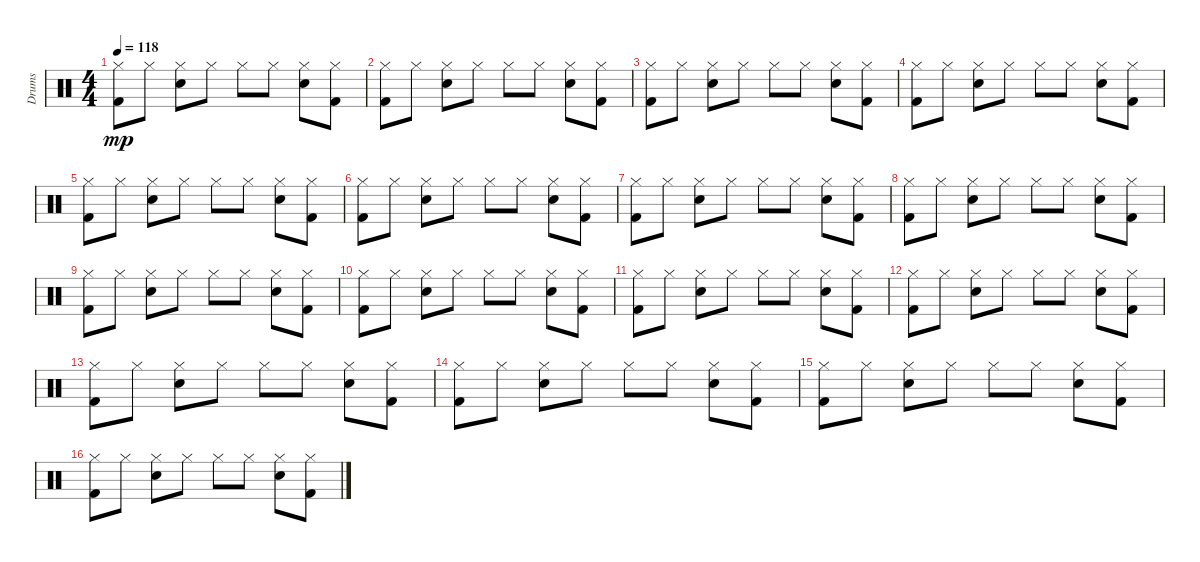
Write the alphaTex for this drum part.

\track ("Drums" "Drums") {instrument percussion}
\staff {score}
\articulation defaults
\ts (4 4)
\tempo 118
\clef neutral
\ks c
("Hi-Hat (closed)" "Kick (hit) 2").8{dy mp} "Hi-Hat (closed)".8 ("Hi-Hat (closed)" "Snare (hit) 2").8 "Hi-Hat (closed)".8 "Hi-Hat (closed)".8 "Hi-Hat (closed)".8 ("Hi-Hat (closed)" "Snare (hit) 2").8 ("Hi-Hat (closed)" "Kick (hit) 2").8 |
("Hi-Hat (closed)" "Kick (hit) 2").8 "Hi-Hat (closed)".8 ("Hi-Hat (closed)" "Snare (hit) 2").8 "Hi-Hat (closed)".8 "Hi-Hat (closed)".8 "Hi-Hat (closed)".8 ("Hi-Hat (closed)" "Snare (hit) 2").8 ("Hi-Hat (closed)" "Kick (hit) 2").8 |
("Hi-Hat (closed)" "Kick (hit) 2").8 "Hi-Hat (closed)".8 ("Hi-Hat (closed)" "Snare (hit) 2").8 "Hi-Hat (closed)".8 "Hi-Hat (closed)".8 "Hi-Hat (closed)".8 ("Hi-Hat (closed)" "Snare (hit) 2").8 ("Hi-Hat (closed)" "Kick (hit) 2").8 |
("Hi-Hat (closed)" "Kick (hit) 2").8 "Hi-Hat (closed)".8 ("Hi-Hat (closed)" "Snare (hit) 2").8 "Hi-Hat (closed)".8 "Hi-Hat (closed)".8 "Hi-Hat (closed)".8 ("Hi-Hat (closed)" "Snare (hit) 2").8 ("Hi-Hat (closed)" "Kick (hit) 2").8 |
("Hi-Hat (closed)" "Kick (hit) 2").8 "Hi-Hat (closed)".8 ("Hi-Hat (closed)" "Snare (hit) 2").8 "Hi-Hat (closed)".8 "Hi-Hat (closed)".8 "Hi-Hat (closed)".8 ("Hi-Hat (closed)" "Snare (hit) 2").8 ("Hi-Hat (closed)" "Kick (hit) 2").8 |
("Hi-Hat (closed)" "Kick (hit) 2").8 "Hi-Hat (closed)".8 ("Hi-Hat (closed)" "Snare (hit) 2").8 "Hi-Hat (closed)".8 "Hi-Hat (closed)".8 "Hi-Hat (closed)".8 ("Hi-Hat (closed)" "Snare (hit) 2").8 ("Hi-Hat (closed)" "Kick (hit) 2").8 |
("Hi-Hat (closed)" "Kick (hit) 2").8 "Hi-Hat (closed)".8 ("Hi-Hat (closed)" "Snare (hit) 2").8 "Hi-Hat (closed)".8 "Hi-Hat (closed)".8 "Hi-Hat (closed)".8 ("Hi-Hat (closed)" "Snare (hit) 2").8 ("Hi-Hat (closed)" "Kick (hit) 2").8 |
("Hi-Hat (closed)" "Kick (hit) 2").8 "Hi-Hat (closed)".8 ("Hi-Hat (closed)" "Snare (hit) 2").8 "Hi-Hat (closed)".8 "Hi-Hat (closed)".8 "Hi-Hat (closed)".8 ("Hi-Hat (closed)" "Snare (hit) 2").8 ("Hi-Hat (closed)" "Kick (hit) 2").8 |
("Hi-Hat (closed)" "Kick (hit) 2").8 "Hi-Hat (closed)".8 ("Hi-Hat (closed)" "Snare (hit) 2").8 "Hi-Hat (closed)".8 "Hi-Hat (closed)".8 "Hi-Hat (closed)".8 ("Hi-Hat (closed)" "Snare (hit) 2").8 ("Hi-Hat (closed)" "Kick (hit) 2").8 |
("Hi-Hat (closed)" "Kick (hit) 2").8 "Hi-Hat (closed)".8 ("Hi-Hat (closed)" "Snare (hit) 2").8 "Hi-Hat (closed)".8 "Hi-Hat (closed)".8 "Hi-Hat (closed)".8 ("Hi-Hat (closed)" "Snare (hit) 2").8 ("Hi-Hat (closed)" "Kick (hit) 2").8 |
("Hi-Hat (closed)" "Kick (hit) 2").8 "Hi-Hat (closed)".8 ("Hi-Hat (closed)" "Snare (hit) 2").8 "Hi-Hat (closed)".8 "Hi-Hat (closed)".8 "Hi-Hat (closed)".8 ("Hi-Hat (closed)" "Snare (hit) 2").8 ("Hi-Hat (closed)" "Kick (hit) 2").8 |
("Hi-Hat (closed)" "Kick (hit) 2").8 "Hi-Hat (closed)".8 ("Hi-Hat (closed)" "Snare (hit) 2").8 "Hi-Hat (closed)".8 "Hi-Hat (closed)".8 "Hi-Hat (closed)".8 ("Hi-Hat (closed)" "Snare (hit) 2").8 ("Hi-Hat (closed)" "Kick (hit) 2").8 |
("Hi-Hat (closed)" "Kick (hit) 2").8 "Hi-Hat (closed)".8 ("Hi-Hat (closed)" "Snare (hit) 2").8 "Hi-Hat (closed)".8 "Hi-Hat (closed)".8 "Hi-Hat (closed)".8 ("Hi-Hat (closed)" "Snare (hit) 2").8 ("Hi-Hat (closed)" "Kick (hit) 2").8 |
("Hi-Hat (closed)" "Kick (hit) 2").8 "Hi-Hat (closed)".8 ("Hi-Hat (closed)" "Snare (hit) 2").8 "Hi-Hat (closed)".8 "Hi-Hat (closed)".8 "Hi-Hat (closed)".8 ("Hi-Hat (closed)" "Snare (hit) 2").8 ("Hi-Hat (closed)" "Kick (hit) 2").8 |
("Hi-Hat (closed)" "Kick (hit) 2").8 "Hi-Hat (closed)".8 ("Hi-Hat (closed)" "Snare (hit) 2").8 "Hi-Hat (closed)".8 "Hi-Hat (closed)".8 "Hi-Hat (closed)".8 ("Hi-Hat (closed)" "Snare (hit) 2").8 ("Hi-Hat (closed)" "Kick (hit) 2").8 |
("Hi-Hat (closed)" "Kick (hit) 2").8 "Hi-Hat (closed)".8 ("Hi-Hat (closed)" "Snare (hit) 2").8 "Hi-Hat (closed)".8 "Hi-Hat (closed)".8 "Hi-Hat (closed)".8 ("Hi-Hat (closed)" "Snare (hit) 2").8 ("Hi-Hat (closed)" "Kick (hit) 2").8
